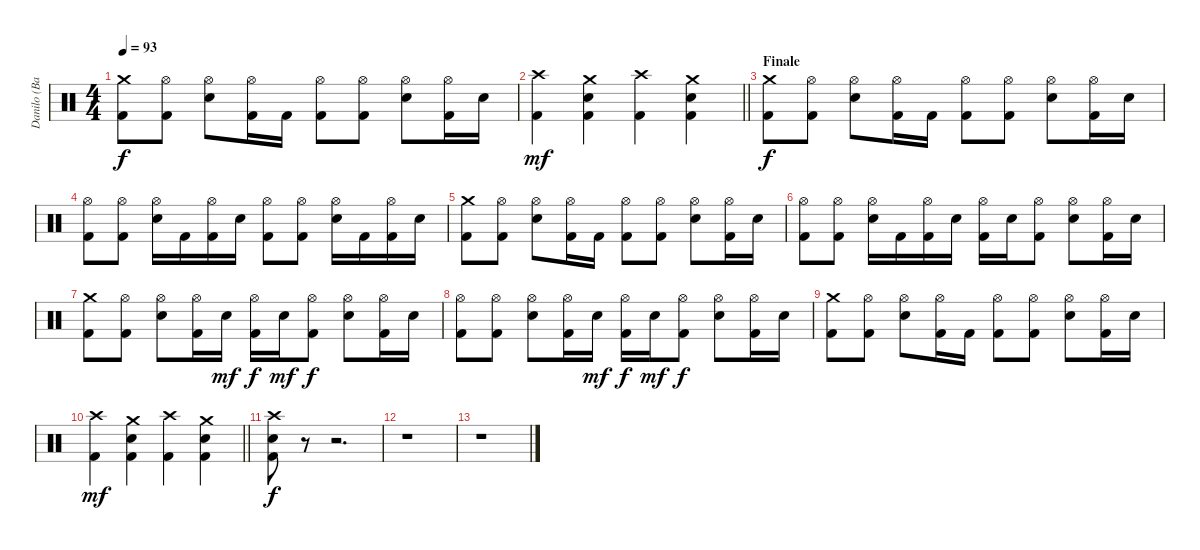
\track ("Danilo (Batteria)" "Danilo (Ba") {instrument percussion}
\staff {score}
\articulation defaults
\ts (4 4)
\tempo 93
\clef neutral
\ks c
("Crash medium (hit)" "Kick (hit) 2").8{dy f} ("Hi-Hat (open)" "Kick (hit) 2").8 ("Hi-Hat (open)" "Electric Snare (hit)").8 ("Hi-Hat (open)" "Kick (hit) 2").16 "Kick (hit) 2".16 ("Hi-Hat (open)" "Kick (hit) 2").8 ("Hi-Hat (open)" "Kick (hit) 2").8 ("Hi-Hat (open)" "Electric Snare (hit)").8 ("Hi-Hat (open)" "Kick (hit) 2").16 "Electric Snare (hit)".16 |
\barLineRight lightlight
("Crash high (hit)" "Kick (hit) 2").4{dy mf} ("Crash medium (hit)" "Electric Snare (hit)" "Kick (hit) 2").4 ("Crash high (hit)" "Kick (hit) 2").4 ("Crash medium (hit)" "Electric Snare (hit)" "Kick (hit) 2").4 |
\section ("" "Finale")
("Crash medium (hit)" "Kick (hit) 2").8{dy f} ("Hi-Hat (open)" "Kick (hit) 2").8 ("Hi-Hat (open)" "Electric Snare (hit)").8 ("Hi-Hat (open)" "Kick (hit) 2").16 "Kick (hit) 2".16 ("Hi-Hat (open)" "Kick (hit) 2").8 ("Hi-Hat (open)" "Kick (hit) 2").8 ("Hi-Hat (open)" "Electric Snare (hit)").8 ("Hi-Hat (open)" "Kick (hit) 2").16 "Electric Snare (hit)".16 |
("Hi-Hat (open)" "Kick (hit) 2").8 ("Hi-Hat (open)" "Kick (hit) 2").8 ("Hi-Hat (open)" "Electric Snare (hit)").16 "Kick (hit) 2".16 ("Hi-Hat (open)" "Kick (hit) 2").16 "Electric Snare (hit)".16 ("Hi-Hat (open)" "Kick (hit) 2").8 ("Hi-Hat (open)" "Kick (hit) 2").8 ("Hi-Hat (open)" "Electric Snare (hit)").16 "Kick (hit) 2".16 ("Hi-Hat (open)" "Kick (hit) 2").16 "Electric Snare (hit)".16 |
("Crash medium (hit)" "Kick (hit) 2").8 ("Hi-Hat (open)" "Kick (hit) 2").8 ("Hi-Hat (open)" "Electric Snare (hit)").8 ("Hi-Hat (open)" "Kick (hit) 2").16 "Kick (hit) 2".16 ("Hi-Hat (open)" "Kick (hit) 2").8 ("Hi-Hat (open)" "Kick (hit) 2").8 ("Hi-Hat (open)" "Electric Snare (hit)").8 ("Hi-Hat (open)" "Kick (hit) 2").16 "Electric Snare (hit)".16 |
("Hi-Hat (open)" "Kick (hit) 2").8 ("Hi-Hat (open)" "Kick (hit) 2").8 ("Hi-Hat (open)" "Electric Snare (hit)").16 "Kick (hit) 2".16 ("Hi-Hat (open)" "Kick (hit) 2").16 "Electric Snare (hit)".16 ("Hi-Hat (open)" "Kick (hit) 2").16 "Electric Snare (hit)".16 ("Hi-Hat (open)" "Kick (hit) 2").8 ("Hi-Hat (open)" "Electric Snare (hit)").8 ("Hi-Hat (open)" "Kick (hit) 2").16 "Electric Snare (hit)".16 |
("Crash medium (hit)" "Kick (hit) 2").8 ("Hi-Hat (open)" "Kick (hit) 2").8 ("Hi-Hat (open)" "Electric Snare (hit)").8 ("Hi-Hat (open)" "Kick (hit) 2").16 "Electric Snare (hit)".16{dy mf} ("Hi-Hat (open)" "Kick (hit) 2").16{dy f} "Electric Snare (hit)".16{dy mf} ("Hi-Hat (open)" "Kick (hit) 2").8{dy f} ("Hi-Hat (open)" "Electric Snare (hit)").8 ("Hi-Hat (open)" "Kick (hit) 2").16 "Electric Snare (hit)".16 |
("Hi-Hat (open)" "Kick (hit) 2").8 ("Hi-Hat (open)" "Kick (hit) 2").8 ("Hi-Hat (open)" "Electric Snare (hit)").8 ("Hi-Hat (open)" "Kick (hit) 2").16 "Electric Snare (hit)".16{dy mf} ("Hi-Hat (open)" "Kick (hit) 2").16{dy f} "Electric Snare (hit)".16{dy mf} ("Hi-Hat (open)" "Kick (hit) 2").8{dy f} ("Hi-Hat (open)" "Electric Snare (hit)").8 ("Hi-Hat (open)" "Kick (hit) 2").16 "Electric Snare (hit)".16 |
("Crash medium (hit)" "Kick (hit) 2").8 ("Hi-Hat (open)" "Kick (hit) 2").8 ("Hi-Hat (open)" "Electric Snare (hit)").8 ("Hi-Hat (open)" "Kick (hit) 2").16 "Kick (hit) 2".16 ("Hi-Hat (open)" "Kick (hit) 2").8 ("Hi-Hat (open)" "Kick (hit) 2").8 ("Hi-Hat (open)" "Electric Snare (hit)").8 ("Hi-Hat (open)" "Kick (hit) 2").16 "Electric Snare (hit)".16 |
\barLineRight lightlight
("Crash high (hit)" "Kick (hit) 2").4{dy mf} ("Crash medium (hit)" "Electric Snare (hit)" "Kick (hit) 2").4 ("Crash high (hit)" "Kick (hit) 2").4 ("Crash medium (hit)" "Electric Snare (hit)" "Kick (hit) 2").4 |
("Crash high (hit)" "Electric Snare (hit)" "Kick (hit) 2").8{dy f} r.8 r.2{d} |
r.1 |
r.1
